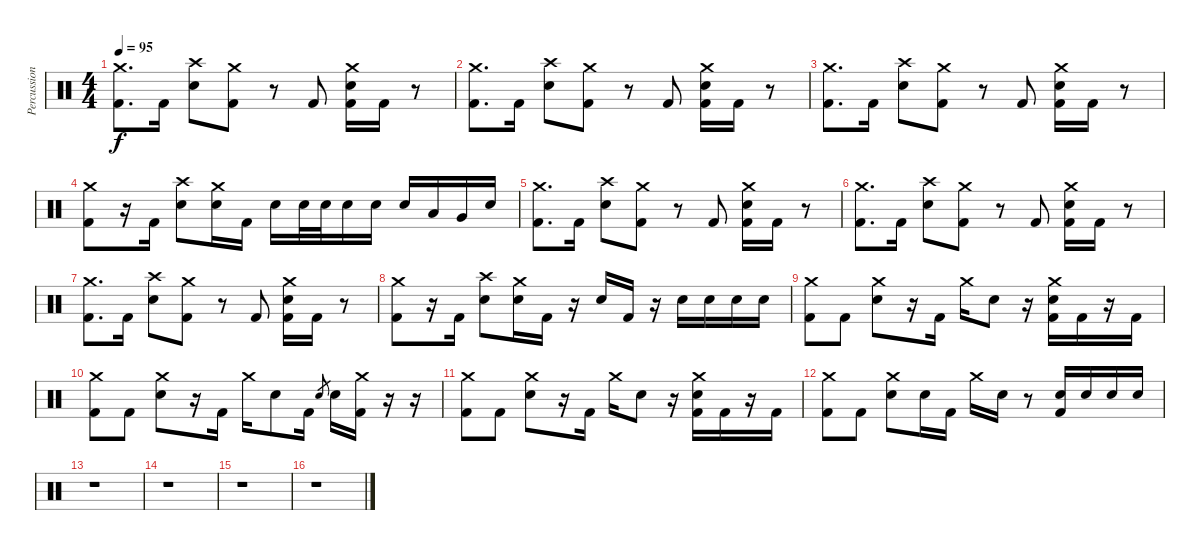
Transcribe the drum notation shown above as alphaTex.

\track ("Percussion" "Percussion") {instrument percussion}
\staff {score}
\articulation defaults
\ts (4 4)
\tempo 95
\clef neutral
\ks c
("Crash medium (hit)" "Kick (hit) 2").8{d dy f} "Kick (hit) 2".16 ("Crash high (hit)" "Electric Snare (hit)").8 ("Crash medium (hit)" "Kick (hit) 2").8 r.8 "Kick (hit) 2".8 ("Crash medium (hit)" "Electric Snare (hit)" "Kick (hit) 2").16 "Kick (hit) 2".16 r.8 |
("Crash medium (hit)" "Kick (hit) 2").8{d} "Kick (hit) 2".16 ("Crash high (hit)" "Electric Snare (hit)").8 ("Crash medium (hit)" "Kick (hit) 2").8 r.8 "Kick (hit) 2".8 ("Crash medium (hit)" "Electric Snare (hit)" "Kick (hit) 2").16 "Kick (hit) 2".16 r.8 |
("Crash medium (hit)" "Kick (hit) 2").8{d} "Kick (hit) 2".16 ("Crash high (hit)" "Electric Snare (hit)").8 ("Crash medium (hit)" "Kick (hit) 2").8 r.8 "Kick (hit) 2".8 ("Crash medium (hit)" "Electric Snare (hit)" "Kick (hit) 2").16 "Kick (hit) 2".16 r.8 |
("Crash medium (hit)" "Kick (hit) 2").8 r.16 "Kick (hit) 2".16 ("Crash high (hit)" "Electric Snare (hit)").8 ("Crash medium (hit)" "Electric Snare (hit)").16 "Kick (hit) 2".16 "Electric Snare (hit)".16 "Electric Snare (hit)".32 "Electric Snare (hit)".32 "Electric Snare (hit)".16 "Electric Snare (hit)".16 "Electric Snare (hit)".16 "Low Tom (hit)".16 "Very Low Tom (hit)".16 "Electric Snare (hit)".16 |
("Crash medium (hit)" "Kick (hit) 2").8{d} "Kick (hit) 2".16 ("Crash high (hit)" "Electric Snare (hit)").8 ("Crash medium (hit)" "Kick (hit) 2").8 r.8 "Kick (hit) 2".8 ("Crash medium (hit)" "Electric Snare (hit)" "Kick (hit) 2").16 "Kick (hit) 2".16 r.8 |
("Crash medium (hit)" "Kick (hit) 2").8{d} "Kick (hit) 2".16 ("Crash high (hit)" "Electric Snare (hit)").8 ("Crash medium (hit)" "Kick (hit) 2").8 r.8 "Kick (hit) 2".8 ("Crash medium (hit)" "Electric Snare (hit)" "Kick (hit) 2").16 "Kick (hit) 2".16 r.8 |
("Crash medium (hit)" "Kick (hit) 2").8{d} "Kick (hit) 2".16 ("Crash high (hit)" "Electric Snare (hit)").8 ("Crash medium (hit)" "Kick (hit) 2").8 r.8 "Kick (hit) 2".8 ("Crash medium (hit)" "Electric Snare (hit)" "Kick (hit) 2").16 "Kick (hit) 2".16 r.8 |
("Crash medium (hit)" "Kick (hit) 2").8 r.16 "Kick (hit) 2".16 ("Crash high (hit)" "Electric Snare (hit)").8 ("Crash medium (hit)" "Electric Snare (hit)").16 "Kick (hit) 2".16 r.16 "Electric Snare (hit)".16 "Kick (hit) 2".16 r.16 "Electric Snare (hit)".16 "Electric Snare (hit)".16 "Electric Snare (hit)".16 "Electric Snare (hit)".16 |
("Crash medium (hit)" "Kick (hit) 2").8 "Kick (hit) 2".8 ("Crash medium (hit)" "Electric Snare (hit)").8 r.16 "Kick (hit) 2".16 "Crash medium (hit)".16 "Electric Snare (hit)".8 r.16 ("Crash medium (hit)" "Electric Snare (hit)" "Kick (hit) 2").16 "Kick (hit) 2".16 r.16 "Kick (hit) 2".16 |
("Crash medium (hit)" "Kick (hit) 2").8 "Kick (hit) 2".8 ("Crash medium (hit)" "Electric Snare (hit)").8 r.16 "Kick (hit) 2".16 "Crash medium (hit)".16 "Electric Snare (hit)".8 "Kick (hit) 2".16 "Electric Snare (hit)".8{gr} "Electric Snare (hit)".16 ("Crash medium (hit)" "Kick (hit) 2").16 r.16 r.16 |
("Crash medium (hit)" "Kick (hit) 2").8 "Kick (hit) 2".8 ("Crash medium (hit)" "Electric Snare (hit)").8 r.16 "Kick (hit) 2".16 "Crash medium (hit)".16 "Electric Snare (hit)".8 r.16 ("Crash medium (hit)" "Electric Snare (hit)" "Kick (hit) 2").16 "Kick (hit) 2".16 r.16 "Kick (hit) 2".16 |
("Crash medium (hit)" "Kick (hit) 2").8 "Kick (hit) 2".8 ("Crash medium (hit)" "Electric Snare (hit)").8 "Electric Snare (hit)".16 "Kick (hit) 2".16 "Crash medium (hit)".16 "Electric Snare (hit)".16 r.8 ("Electric Snare (hit)" "Kick (hit) 2").16 "Electric Snare (hit)".16 "Electric Snare (hit)".16 "Electric Snare (hit)".16 |
r.1 |
r.1 |
r.1 |
r.1
